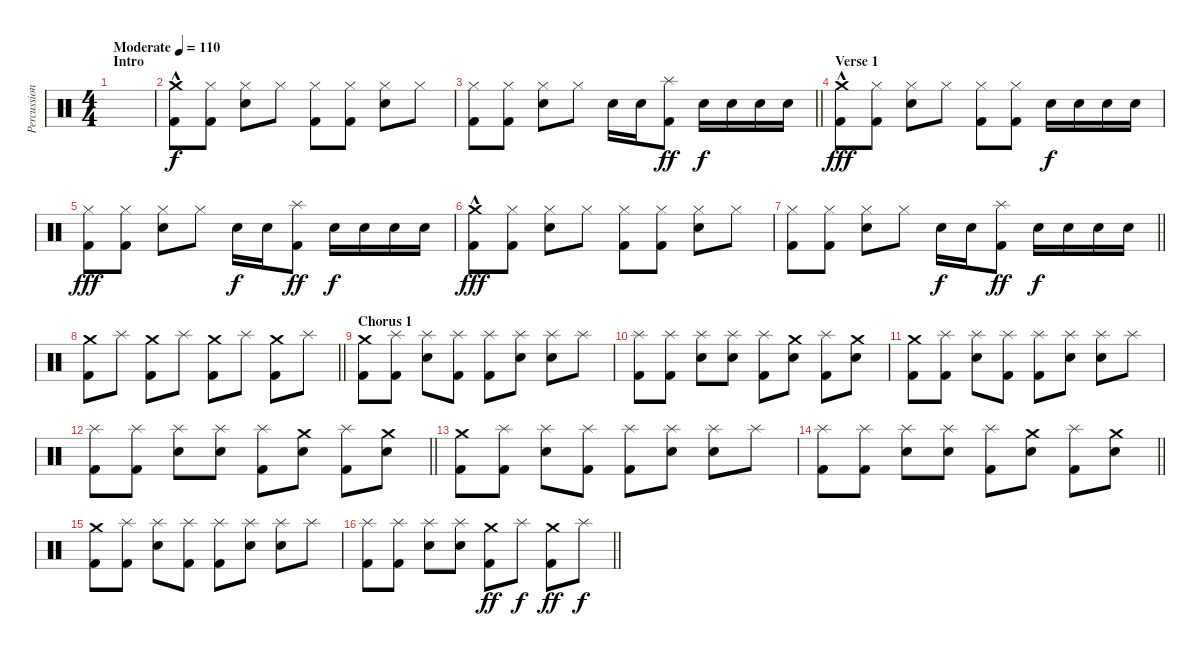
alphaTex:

\track ("Percussion" "Percussion") {instrument percussion}
\staff {score}
\articulation defaults
\ts (4 4)
\section ("" "Intro")
\tempo (110 "Moderate")
\clef neutral
\ks c
|
("Crash medium (hit)"{hac} "Kick (hit) 2").8 ("Hi-Hat (closed)" "Kick (hit) 2").8 ("Hi-Hat (closed)" "Snare (hit) 2").8 "Hi-Hat (closed)".8 ("Hi-Hat (closed)" "Kick (hit) 2").8 ("Hi-Hat (closed)" "Kick (hit) 2").8 ("Hi-Hat (closed)" "Snare (hit) 2").8 "Hi-Hat (closed)".8 |
\barLineRight lightlight
("Hi-Hat (closed)" "Kick (hit) 2").8 ("Hi-Hat (closed)" "Kick (hit) 2").8 ("Hi-Hat (closed)" "Snare (hit) 2").8 "Hi-Hat (closed)".8 "Snare (hit) 2".16{dy f} "Snare (hit) 2".16 ("Splash (hit)" "Kick (hit) 2").8{dy ff} "Snare (hit) 2".16{dy f} "Snare (hit) 2".16 "Snare (hit) 2".16 "Snare (hit) 2".16 |
\section ("" "Verse 1")
("Crash medium (hit)"{hac} "Kick (hit) 2").8{dy fff} ("Hi-Hat (closed)" "Kick (hit) 2").8 ("Hi-Hat (closed)" "Snare (hit) 2").8 "Hi-Hat (closed)".8 ("Hi-Hat (closed)" "Kick (hit) 2").8 ("Hi-Hat (closed)" "Kick (hit) 2").8 "Snare (hit) 2".16{dy f} "Snare (hit) 2".16 "Snare (hit) 2".16 "Snare (hit) 2".16 |
("Hi-Hat (closed)" "Kick (hit) 2").8{dy fff} ("Hi-Hat (closed)" "Kick (hit) 2").8 ("Hi-Hat (closed)" "Snare (hit) 2").8 "Hi-Hat (closed)".8 "Snare (hit) 2".16{dy f} "Snare (hit) 2".16 ("Splash (hit)" "Kick (hit) 2").8{dy ff} "Snare (hit) 2".16{dy f} "Snare (hit) 2".16 "Snare (hit) 2".16 "Snare (hit) 2".16 |
("Crash medium (hit)"{hac} "Kick (hit) 2").8{dy fff} ("Hi-Hat (closed)" "Kick (hit) 2").8 ("Hi-Hat (closed)" "Snare (hit) 2").8 "Hi-Hat (closed)".8 ("Hi-Hat (closed)" "Kick (hit) 2").8 ("Hi-Hat (closed)" "Kick (hit) 2").8 ("Hi-Hat (closed)" "Snare (hit) 2").8 "Hi-Hat (closed)".8 |
\barLineRight lightlight
("Hi-Hat (closed)" "Kick (hit) 2").8 ("Hi-Hat (closed)" "Kick (hit) 2").8 ("Hi-Hat (closed)" "Snare (hit) 2").8 "Hi-Hat (closed)".8 "Snare (hit) 2".16{dy f} "Snare (hit) 2".16 ("Splash (hit)" "Kick (hit) 2").8{dy ff} "Snare (hit) 2".16{dy f} "Snare (hit) 2".16 "Snare (hit) 2".16 "Snare (hit) 2".16 |
\barLineRight lightlight
("Crash medium (hit)" "Kick (hit) 2").8 "Splash (hit)".8 ("Crash medium (hit)" "Kick (hit) 2").8 "Splash (hit)".8 ("Crash medium (hit)" "Kick (hit) 2").8 "Splash (hit)".8 ("Crash medium (hit)" "Kick (hit) 2").8 "Splash (hit)".8 |
\section ("" "Chorus 1")
("Crash medium (hit)" "Kick (hit) 2").8 ("Splash (hit)" "Kick (hit) 2").8 ("Splash (hit)" "Snare (hit) 2").8 ("Splash (hit)" "Kick (hit) 2").8 ("Splash (hit)" "Kick (hit) 2").8 ("Splash (hit)" "Snare (hit) 2").8 ("Splash (hit)" "Snare (hit) 2").8 "Splash (hit)".8 |
("Splash (hit)" "Kick (hit) 2").8 ("Splash (hit)" "Kick (hit) 2").8 ("Splash (hit)" "Snare (hit) 2").8 ("Splash (hit)" "Snare (hit) 2").8 ("Splash (hit)" "Kick (hit) 2").8 ("Crash medium (hit)" "Snare (hit) 2").8 ("Splash (hit)" "Kick (hit) 2").8 ("Crash medium (hit)" "Snare (hit) 2").8 |
("Crash medium (hit)" "Kick (hit) 2").8 ("Splash (hit)" "Kick (hit) 2").8 ("Splash (hit)" "Snare (hit) 2").8 ("Splash (hit)" "Kick (hit) 2").8 ("Splash (hit)" "Kick (hit) 2").8 ("Splash (hit)" "Snare (hit) 2").8 ("Splash (hit)" "Snare (hit) 2").8 "Splash (hit)".8 |
\barLineRight lightlight
("Splash (hit)" "Kick (hit) 2").8 ("Splash (hit)" "Kick (hit) 2").8 ("Splash (hit)" "Snare (hit) 2").8 ("Splash (hit)" "Snare (hit) 2").8 ("Splash (hit)" "Kick (hit) 2").8 ("Crash medium (hit)" "Snare (hit) 2").8 ("Splash (hit)" "Kick (hit) 2").8 ("Crash medium (hit)" "Snare (hit) 2").8 |
("Crash medium (hit)" "Kick (hit) 2").8 ("Splash (hit)" "Kick (hit) 2").8 ("Splash (hit)" "Snare (hit) 2").8 ("Splash (hit)" "Kick (hit) 2").8 ("Splash (hit)" "Kick (hit) 2").8 ("Splash (hit)" "Snare (hit) 2").8 ("Splash (hit)" "Snare (hit) 2").8 "Splash (hit)".8 |
\barLineRight lightlight
("Splash (hit)" "Kick (hit) 2").8 ("Splash (hit)" "Kick (hit) 2").8 ("Splash (hit)" "Snare (hit) 2").8 ("Splash (hit)" "Snare (hit) 2").8 ("Splash (hit)" "Kick (hit) 2").8 ("Crash medium (hit)" "Snare (hit) 2").8 ("Splash (hit)" "Kick (hit) 2").8 ("Crash medium (hit)" "Snare (hit) 2").8 |
("Crash medium (hit)" "Kick (hit) 2").8 ("Splash (hit)" "Kick (hit) 2").8 ("Splash (hit)" "Snare (hit) 2").8 ("Splash (hit)" "Kick (hit) 2").8 ("Splash (hit)" "Kick (hit) 2").8 ("Splash (hit)" "Snare (hit) 2").8 ("Splash (hit)" "Snare (hit) 2").8 "Splash (hit)".8 |
\barLineRight lightlight
("Splash (hit)" "Kick (hit) 2").8 ("Splash (hit)" "Kick (hit) 2").8 ("Splash (hit)" "Snare (hit) 2").8 ("Splash (hit)" "Snare (hit) 2").8 ("Crash medium (hit)" "Kick (hit) 2").8{dy ff} "Splash (hit)".8{dy f} ("Crash medium (hit)" "Kick (hit) 2").8{dy ff} "Splash (hit)".8{dy f}
